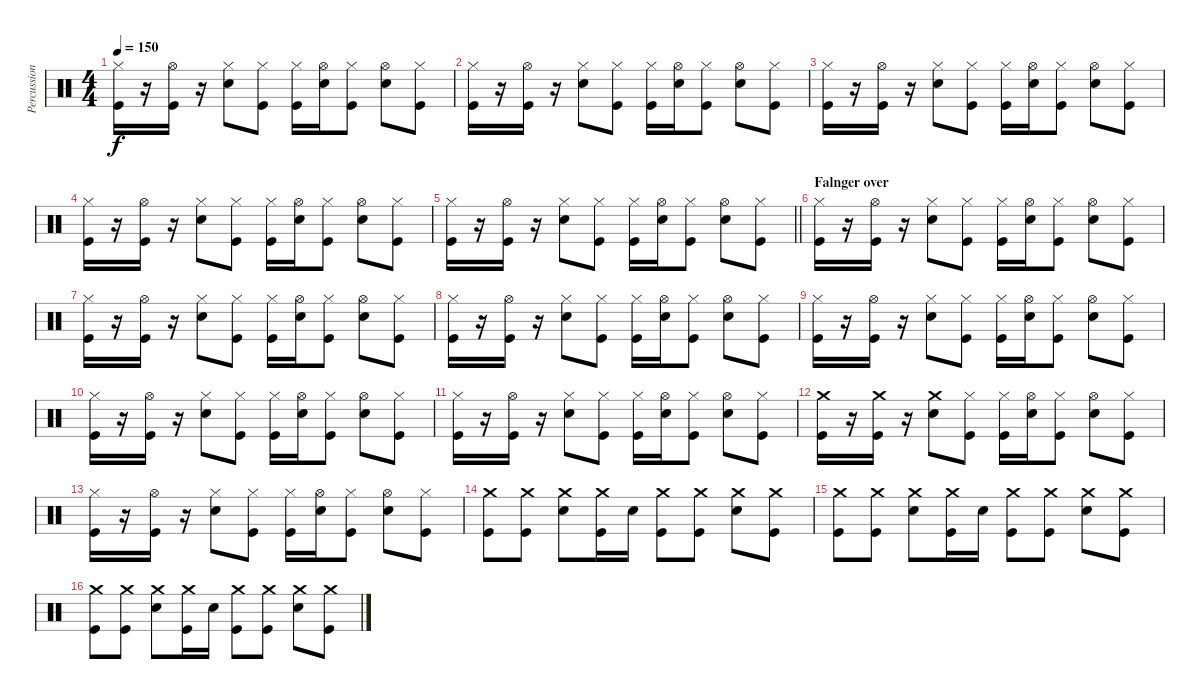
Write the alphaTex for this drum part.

\track ("Percussion" "Percussion") {instrument percussion}
\staff {score}
\articulation defaults
\ts (4 4)
\tempo 150
\clef neutral
\ks c
("Hi-Hat (closed)" "Kick (hit)").16{dy f} r.16 ("Hi-Hat (open)" "Kick (hit)").16 r.16 ("Hi-Hat (closed)" "Electric Snare (hit)").8 ("Hi-Hat (closed)" "Kick (hit)").8 ("Hi-Hat (closed)" "Kick (hit)").16 ("Hi-Hat (open)" "Electric Snare (hit)").16 ("Hi-Hat (closed)" "Kick (hit)").8 ("Hi-Hat (open)" "Electric Snare (hit)").8 ("Hi-Hat (closed)" "Kick (hit)").8 |
("Hi-Hat (closed)" "Kick (hit)").16 r.16 ("Hi-Hat (open)" "Kick (hit)").16 r.16 ("Hi-Hat (closed)" "Electric Snare (hit)").8 ("Hi-Hat (closed)" "Kick (hit)").8 ("Hi-Hat (closed)" "Kick (hit)").16 ("Hi-Hat (open)" "Electric Snare (hit)").16 ("Hi-Hat (closed)" "Kick (hit)").8 ("Hi-Hat (open)" "Electric Snare (hit)").8 ("Hi-Hat (closed)" "Kick (hit)").8 |
("Hi-Hat (closed)" "Kick (hit)").16 r.16 ("Hi-Hat (open)" "Kick (hit)").16 r.16 ("Hi-Hat (closed)" "Electric Snare (hit)").8 ("Hi-Hat (closed)" "Kick (hit)").8 ("Hi-Hat (closed)" "Kick (hit)").16 ("Hi-Hat (open)" "Electric Snare (hit)").16 ("Hi-Hat (closed)" "Kick (hit)").8 ("Hi-Hat (open)" "Electric Snare (hit)").8 ("Hi-Hat (closed)" "Kick (hit)").8 |
("Hi-Hat (closed)" "Kick (hit)").16 r.16 ("Hi-Hat (open)" "Kick (hit)").16 r.16 ("Hi-Hat (closed)" "Electric Snare (hit)").8 ("Hi-Hat (closed)" "Kick (hit)").8 ("Hi-Hat (closed)" "Kick (hit)").16 ("Hi-Hat (open)" "Electric Snare (hit)").16 ("Hi-Hat (closed)" "Kick (hit)").8 ("Hi-Hat (open)" "Electric Snare (hit)").8 ("Hi-Hat (closed)" "Kick (hit)").8 |
\barLineRight lightlight
("Hi-Hat (closed)" "Kick (hit)").16 r.16 ("Hi-Hat (open)" "Kick (hit)").16 r.16 ("Hi-Hat (closed)" "Electric Snare (hit)").8 ("Hi-Hat (closed)" "Kick (hit)").8 ("Hi-Hat (closed)" "Kick (hit)").16 ("Hi-Hat (open)" "Electric Snare (hit)").16 ("Hi-Hat (closed)" "Kick (hit)").8 ("Hi-Hat (open)" "Electric Snare (hit)").8 ("Hi-Hat (closed)" "Kick (hit)").8 |
\section ("" "Falnger over")
("Hi-Hat (closed)" "Kick (hit)").16 r.16 ("Hi-Hat (open)" "Kick (hit)").16 r.16 ("Hi-Hat (closed)" "Electric Snare (hit)").8 ("Hi-Hat (closed)" "Kick (hit)").8 ("Hi-Hat (closed)" "Kick (hit)").16 ("Hi-Hat (open)" "Electric Snare (hit)").16 ("Hi-Hat (closed)" "Kick (hit)").8 ("Hi-Hat (open)" "Electric Snare (hit)").8 ("Hi-Hat (closed)" "Kick (hit)").8 |
("Hi-Hat (closed)" "Kick (hit)").16 r.16 ("Hi-Hat (open)" "Kick (hit)").16 r.16 ("Hi-Hat (closed)" "Electric Snare (hit)").8 ("Hi-Hat (closed)" "Kick (hit)").8 ("Hi-Hat (closed)" "Kick (hit)").16 ("Hi-Hat (open)" "Electric Snare (hit)").16 ("Hi-Hat (closed)" "Kick (hit)").8 ("Hi-Hat (open)" "Electric Snare (hit)").8 ("Hi-Hat (closed)" "Kick (hit)").8 |
("Hi-Hat (closed)" "Kick (hit)").16 r.16 ("Hi-Hat (open)" "Kick (hit)").16 r.16 ("Hi-Hat (closed)" "Electric Snare (hit)").8 ("Hi-Hat (closed)" "Kick (hit)").8 ("Hi-Hat (closed)" "Kick (hit)").16 ("Hi-Hat (open)" "Electric Snare (hit)").16 ("Hi-Hat (closed)" "Kick (hit)").8 ("Hi-Hat (open)" "Electric Snare (hit)").8 ("Hi-Hat (closed)" "Kick (hit)").8 |
("Hi-Hat (closed)" "Kick (hit)").16 r.16 ("Hi-Hat (open)" "Kick (hit)").16 r.16 ("Hi-Hat (closed)" "Electric Snare (hit)").8 ("Hi-Hat (closed)" "Kick (hit)").8 ("Hi-Hat (closed)" "Kick (hit)").16 ("Hi-Hat (open)" "Electric Snare (hit)").16 ("Hi-Hat (closed)" "Kick (hit)").8 ("Hi-Hat (open)" "Electric Snare (hit)").8 ("Hi-Hat (closed)" "Kick (hit)").8 |
("Hi-Hat (closed)" "Kick (hit)").16 r.16 ("Hi-Hat (open)" "Kick (hit)").16 r.16 ("Hi-Hat (closed)" "Electric Snare (hit)").8 ("Hi-Hat (closed)" "Kick (hit)").8 ("Hi-Hat (closed)" "Kick (hit)").16 ("Hi-Hat (open)" "Electric Snare (hit)").16 ("Hi-Hat (closed)" "Kick (hit)").8 ("Hi-Hat (open)" "Electric Snare (hit)").8 ("Hi-Hat (closed)" "Kick (hit)").8 |
("Hi-Hat (closed)" "Kick (hit)").16 r.16 ("Hi-Hat (open)" "Kick (hit)").16 r.16 ("Hi-Hat (closed)" "Electric Snare (hit)").8 ("Hi-Hat (closed)" "Kick (hit)").8 ("Hi-Hat (closed)" "Kick (hit)").16 ("Hi-Hat (open)" "Electric Snare (hit)").16 ("Hi-Hat (closed)" "Kick (hit)").8 ("Hi-Hat (open)" "Electric Snare (hit)").8 ("Hi-Hat (closed)" "Kick (hit)").8 |
("Crash medium (hit)" "Kick (hit)").16 r.16 ("Crash medium (hit)" "Kick (hit)").16 r.16 ("Crash medium (hit)" "Electric Snare (hit)").8 ("Hi-Hat (closed)" "Kick (hit)").8 ("Hi-Hat (closed)" "Kick (hit)").16 ("Hi-Hat (open)" "Electric Snare (hit)").16 ("Hi-Hat (closed)" "Kick (hit)").8 ("Hi-Hat (open)" "Electric Snare (hit)").8 ("Hi-Hat (closed)" "Kick (hit)").8 |
("Hi-Hat (closed)" "Kick (hit)").16 r.16 ("Hi-Hat (open)" "Kick (hit)").16 r.16 ("Hi-Hat (closed)" "Electric Snare (hit)").8 ("Hi-Hat (closed)" "Kick (hit)").8 ("Hi-Hat (closed)" "Kick (hit)").16 ("Hi-Hat (open)" "Electric Snare (hit)").16 ("Hi-Hat (closed)" "Kick (hit)").8 ("Hi-Hat (open)" "Electric Snare (hit)").8 ("Hi-Hat (closed)" "Kick (hit)").8 |
("Crash medium (hit)" "Kick (hit)").8 ("Crash medium (hit)" "Kick (hit)").8 ("Crash medium (hit)" "Electric Snare (hit)").8 ("Crash medium (hit)" "Kick (hit)").16 "Electric Snare (hit)".16 ("Crash medium (hit)" "Kick (hit)").8 ("Crash medium (hit)" "Kick (hit)").8 ("Crash medium (hit)" "Electric Snare (hit)").8 ("Crash medium (hit)" "Kick (hit)").8 |
("Crash medium (hit)" "Kick (hit)").8 ("Crash medium (hit)" "Kick (hit)").8 ("Crash medium (hit)" "Electric Snare (hit)").8 ("Crash medium (hit)" "Kick (hit)").16 "Electric Snare (hit)".16 ("Crash medium (hit)" "Kick (hit)").8 ("Crash medium (hit)" "Kick (hit)").8 ("Crash medium (hit)" "Electric Snare (hit)").8 ("Crash medium (hit)" "Kick (hit)").8 |
("Crash medium (hit)" "Kick (hit)").8 ("Crash medium (hit)" "Kick (hit)").8 ("Crash medium (hit)" "Electric Snare (hit)").8 ("Crash medium (hit)" "Kick (hit)").16 "Electric Snare (hit)".16 ("Crash medium (hit)" "Kick (hit)").8 ("Crash medium (hit)" "Kick (hit)").8 ("Crash medium (hit)" "Electric Snare (hit)").8 ("Crash medium (hit)" "Kick (hit)").8
